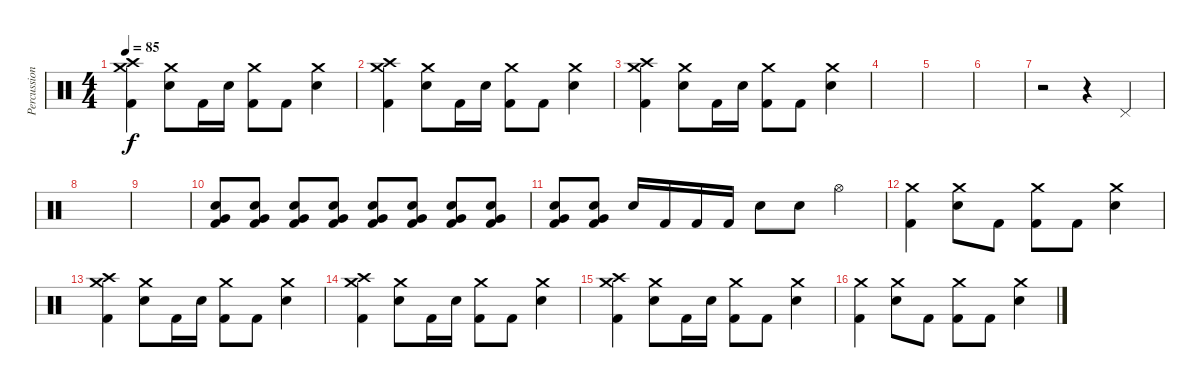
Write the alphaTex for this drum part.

\track ("Percussions" "Percussion") {instrument percussion}
\staff {score}
\articulation defaults
\ts (4 4)
\tempo 85
\clef neutral
\ks c
("Crash high (hit)" "Kick (hit) 2" "Crash medium (hit)").4{dy f} ("Electric Snare (hit)" "Crash medium (hit)").8 "Kick (hit) 2".16 "Electric Snare (hit)".16 ("Kick (hit) 2" "Crash medium (hit)").8 "Kick (hit) 2".8 ("Electric Snare (hit)" "Crash medium (hit)").4 |
("Crash high (hit)" "Kick (hit) 2" "Crash medium (hit)").4 ("Electric Snare (hit)" "Crash medium (hit)").8 "Kick (hit) 2".16 "Electric Snare (hit)".16 ("Kick (hit) 2" "Crash medium (hit)").8 "Kick (hit) 2".8 ("Electric Snare (hit)" "Crash medium (hit)").4 |
("Crash high (hit)" "Kick (hit) 2" "Crash medium (hit)").4 ("Electric Snare (hit)" "Crash medium (hit)").8 "Kick (hit) 2".16 "Electric Snare (hit)".16 ("Kick (hit) 2" "Crash medium (hit)").8 "Kick (hit) 2".8 ("Electric Snare (hit)" "Crash medium (hit)").4 |
|
|
|
r.2 r.4 "Pedal Hi-Hat (hit)".4 |
|
|
("Very Low Tom (hit)" "Kick (hit) 2" "Electric Snare (hit)").8 ("Very Low Tom (hit)" "Kick (hit) 2" "Electric Snare (hit)").8 ("Very Low Tom (hit)" "Kick (hit) 2" "Electric Snare (hit)").8 ("Very Low Tom (hit)" "Kick (hit) 2" "Electric Snare (hit)").8 ("Very Low Tom (hit)" "Kick (hit) 2" "Electric Snare (hit)").8 ("Very Low Tom (hit)" "Kick (hit) 2" "Electric Snare (hit)").8 ("Very Low Tom (hit)" "Kick (hit) 2" "Electric Snare (hit)").8 ("Very Low Tom (hit)" "Kick (hit) 2" "Electric Snare (hit)").8 |
("Very Low Tom (hit)" "Kick (hit) 2" "Electric Snare (hit)").8 ("Very Low Tom (hit)" "Kick (hit) 2" "Electric Snare (hit)").8 "Electric Snare (hit)".16 "Kick (hit) 2".16 "Kick (hit) 2".16 "Kick (hit) 2".16 "Electric Snare (hit)".8 "Electric Snare (hit)".8 "Hi-Hat (open)".4 |
("Kick (hit) 2" "Crash medium (hit)").4 ("Electric Snare (hit)" "Crash medium (hit)").8 "Kick (hit) 2".8 ("Kick (hit) 2" "Crash medium (hit)").8 "Kick (hit) 2".8 ("Electric Snare (hit)" "Crash medium (hit)").4 |
("Crash high (hit)" "Kick (hit) 2" "Crash medium (hit)").4 ("Electric Snare (hit)" "Crash medium (hit)").8 "Kick (hit) 2".16 "Electric Snare (hit)".16 ("Kick (hit) 2" "Crash medium (hit)").8 "Kick (hit) 2".8 ("Electric Snare (hit)" "Crash medium (hit)").4 |
("Crash high (hit)" "Kick (hit) 2" "Crash medium (hit)").4 ("Electric Snare (hit)" "Crash medium (hit)").8 "Kick (hit) 2".16 "Electric Snare (hit)".16 ("Kick (hit) 2" "Crash medium (hit)").8 "Kick (hit) 2".8 ("Electric Snare (hit)" "Crash medium (hit)").4 |
("Crash high (hit)" "Kick (hit) 2" "Crash medium (hit)").4 ("Electric Snare (hit)" "Crash medium (hit)").8 "Kick (hit) 2".16 "Electric Snare (hit)".16 ("Kick (hit) 2" "Crash medium (hit)").8 "Kick (hit) 2".8 ("Electric Snare (hit)" "Crash medium (hit)").4 |
("Kick (hit) 2" "Crash medium (hit)").4 ("Electric Snare (hit)" "Crash medium (hit)").8 "Kick (hit) 2".8 ("Kick (hit) 2" "Crash medium (hit)").8 "Kick (hit) 2".8 ("Electric Snare (hit)" "Crash medium (hit)").4
